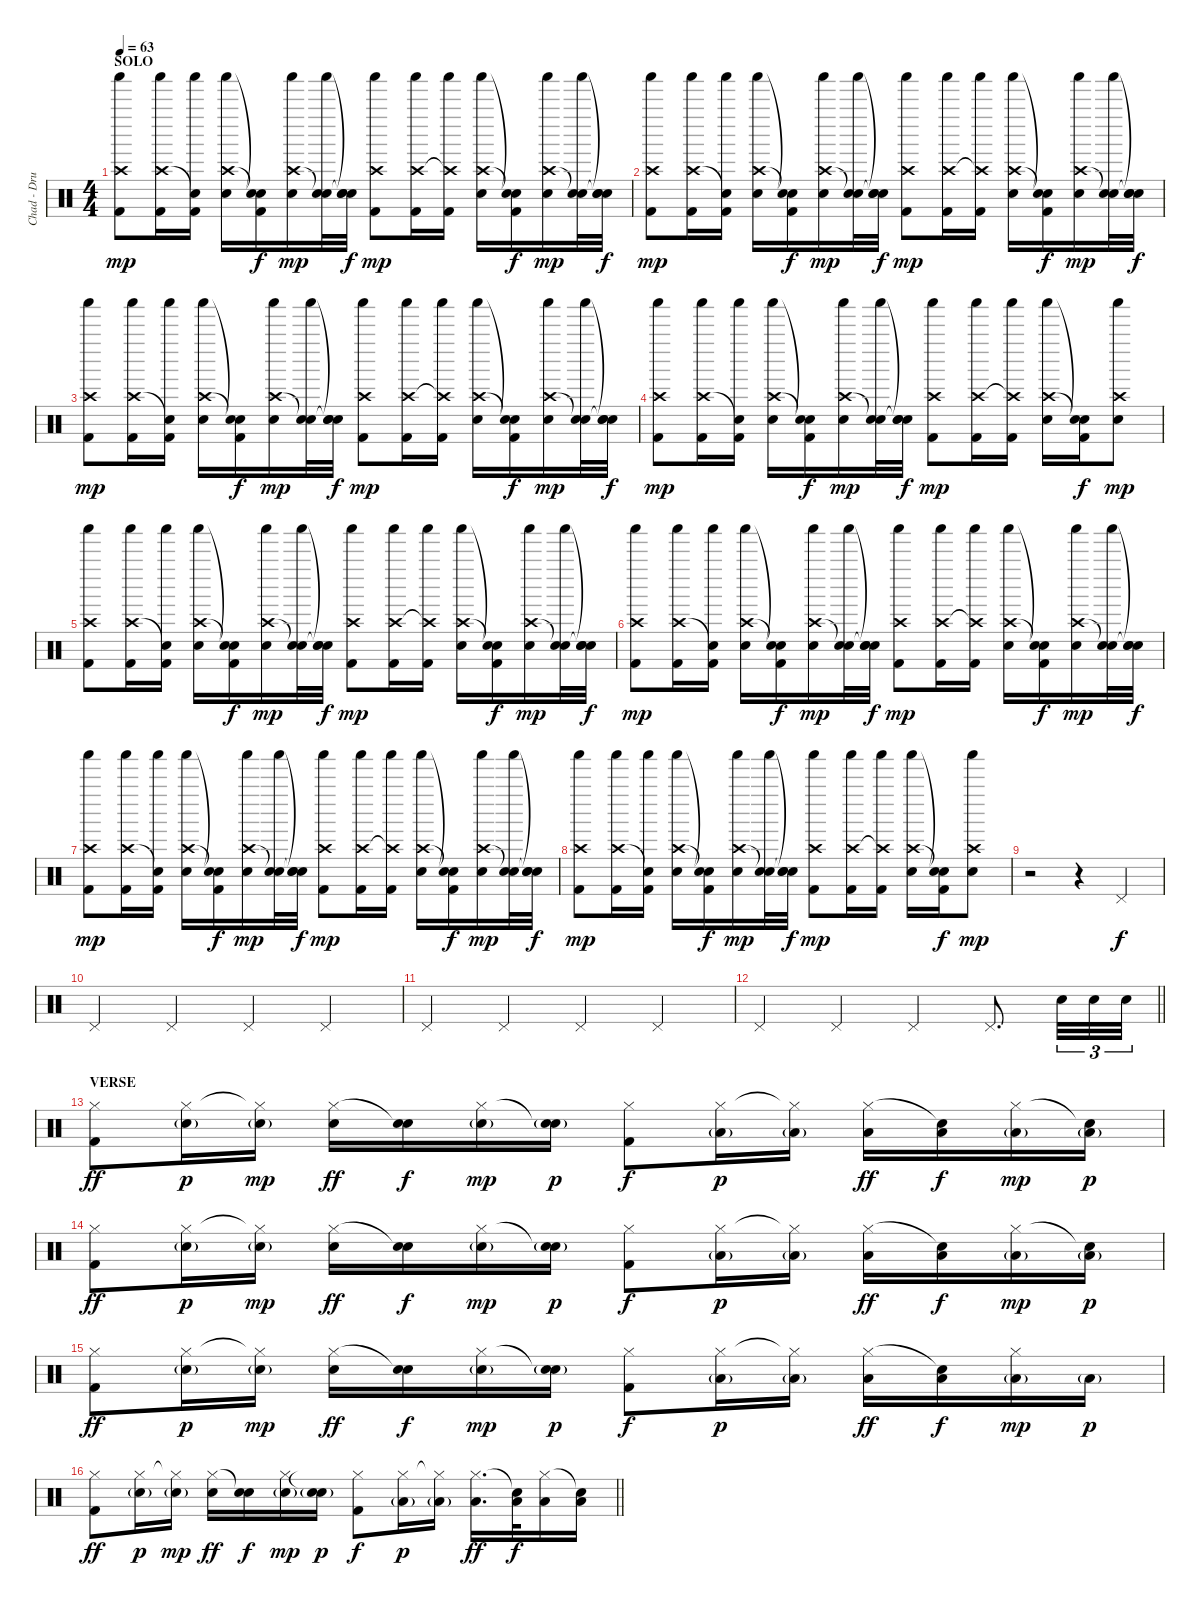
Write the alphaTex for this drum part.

\track ("Chad - Drums" "Chad - Dru") {instrument percussion}
\staff {score}
\articulation defaults
\ts (4 4)
\section ("" "SOLO")
\tempo 63
\clef neutral
\ks c
("Crash high (hit)" "Shaker (hit)" "Kick (hit) 2").8{dy mp} ("Crash high (hit)" "Shaker (hit)" "Kick (hit) 2").16 ("Snare (hit)"{t} "Shaker (hit)" "Kick (hit) 2").16 ("Crash high (hit)" "Shaker (hit)" "Snare (hit) 2").16 ("Snare (hit)"{t} "Snare (hit)"{t} "Kick (hit) 2").16{dy f} ("Crash high (hit)" "Shaker (hit)" "Snare (hit) 2").16{dy mp} ("Snare (hit)"{t} "Shaker (hit)" "Snare (hit) 2").32 ("Snare (hit)"{t} "Snare (hit)"{t} "Snare (hit) 2").32{dy f} ("Crash high (hit)" "Shaker (hit)" "Kick (hit) 2").8{dy mp} ("Crash high (hit)" "Shaker (hit)" "Kick (hit) 2").16 ("Crash high (hit)"{t} "Shaker (hit)" "Kick (hit) 2").16 ("Crash high (hit)" "Shaker (hit)" "Snare (hit) 2").16 ("Snare (hit)"{t} "Snare (hit)"{t} "Kick (hit) 2").16{dy f} ("Crash high (hit)" "Shaker (hit)" "Snare (hit) 2").16{dy mp} ("Snare (hit)"{t} "Shaker (hit)" "Snare (hit) 2").32 ("Snare (hit)"{t} "Snare (hit)"{t} "Snare (hit) 2").32{dy f} |
("Crash high (hit)" "Shaker (hit)" "Kick (hit) 2").8{dy mp} ("Crash high (hit)" "Shaker (hit)" "Kick (hit) 2").16 ("Snare (hit)"{t} "Shaker (hit)" "Kick (hit) 2").16 ("Crash high (hit)" "Shaker (hit)" "Snare (hit) 2").16 ("Snare (hit)"{t} "Snare (hit)"{t} "Kick (hit) 2").16{dy f} ("Crash high (hit)" "Shaker (hit)" "Snare (hit) 2").16{dy mp} ("Snare (hit)"{t} "Shaker (hit)" "Snare (hit) 2").32 ("Snare (hit)"{t} "Snare (hit)"{t} "Snare (hit) 2").32{dy f} ("Crash high (hit)" "Shaker (hit)" "Kick (hit) 2").8{dy mp} ("Crash high (hit)" "Shaker (hit)" "Kick (hit) 2").16 ("Crash high (hit)"{t} "Shaker (hit)" "Kick (hit) 2").16 ("Crash high (hit)" "Shaker (hit)" "Snare (hit) 2").16 ("Snare (hit)"{t} "Snare (hit)"{t} "Kick (hit) 2").16{dy f} ("Crash high (hit)" "Shaker (hit)" "Snare (hit) 2").16{dy mp} ("Snare (hit)"{t} "Shaker (hit)" "Snare (hit) 2").32 ("Snare (hit)"{t} "Snare (hit)"{t} "Snare (hit) 2").32{dy f} |
("Crash high (hit)" "Shaker (hit)" "Kick (hit) 2").8{dy mp} ("Crash high (hit)" "Shaker (hit)" "Kick (hit) 2").16 ("Snare (hit)"{t} "Shaker (hit)" "Kick (hit) 2").16 ("Crash high (hit)" "Shaker (hit)" "Snare (hit) 2").16 ("Snare (hit)"{t} "Snare (hit)"{t} "Kick (hit) 2").16{dy f} ("Crash high (hit)" "Shaker (hit)" "Snare (hit) 2").16{dy mp} ("Snare (hit)"{t} "Shaker (hit)" "Snare (hit) 2").32 ("Snare (hit)"{t} "Snare (hit)"{t} "Snare (hit) 2").32{dy f} ("Crash high (hit)" "Shaker (hit)" "Kick (hit) 2").8{dy mp} ("Crash high (hit)" "Shaker (hit)" "Kick (hit) 2").16 ("Crash high (hit)"{t} "Shaker (hit)" "Kick (hit) 2").16 ("Crash high (hit)" "Shaker (hit)" "Snare (hit) 2").16 ("Snare (hit)"{t} "Snare (hit)"{t} "Kick (hit) 2").16{dy f} ("Crash high (hit)" "Shaker (hit)" "Snare (hit) 2").16{dy mp} ("Snare (hit)"{t} "Shaker (hit)" "Snare (hit) 2").32 ("Snare (hit)"{t} "Snare (hit)"{t} "Snare (hit) 2").32{dy f} |
("Crash high (hit)" "Shaker (hit)" "Kick (hit) 2").8{dy mp} ("Crash high (hit)" "Shaker (hit)" "Kick (hit) 2").16 ("Snare (hit)"{t} "Shaker (hit)" "Kick (hit) 2").16 ("Crash high (hit)" "Shaker (hit)" "Snare (hit) 2").16 ("Snare (hit)"{t} "Snare (hit)"{t} "Kick (hit) 2").16{dy f} ("Crash high (hit)" "Shaker (hit)" "Snare (hit) 2").16{dy mp} ("Snare (hit)"{t} "Shaker (hit)" "Snare (hit) 2").32 ("Snare (hit)"{t} "Snare (hit)"{t} "Snare (hit) 2").32{dy f} ("Crash high (hit)" "Shaker (hit)" "Kick (hit) 2").8{dy mp} ("Crash high (hit)" "Shaker (hit)" "Kick (hit) 2").16 ("Crash high (hit)"{t} "Shaker (hit)" "Kick (hit) 2").16 ("Crash high (hit)" "Shaker (hit)" "Snare (hit) 2").16 ("Snare (hit)"{t} "Snare (hit)"{t} "Kick (hit) 2").16{dy f} ("Crash high (hit)" "Shaker (hit)" "Snare (hit) 2").8{dy mp} |
("Crash high (hit)" "Shaker (hit)" "Kick (hit) 2").8 ("Crash high (hit)" "Shaker (hit)" "Kick (hit) 2").16 ("Snare (hit)"{t} "Shaker (hit)" "Kick (hit) 2").16 ("Crash high (hit)" "Shaker (hit)" "Snare (hit) 2").16 ("Snare (hit)"{t} "Snare (hit)"{t} "Kick (hit) 2").16{dy f} ("Crash high (hit)" "Shaker (hit)" "Snare (hit) 2").16{dy mp} ("Snare (hit)"{t} "Shaker (hit)" "Snare (hit) 2").32 ("Snare (hit)"{t} "Snare (hit)"{t} "Snare (hit) 2").32{dy f} ("Crash high (hit)" "Shaker (hit)" "Kick (hit) 2").8{dy mp} ("Crash high (hit)" "Shaker (hit)" "Kick (hit) 2").16 ("Crash high (hit)"{t} "Shaker (hit)" "Kick (hit) 2").16 ("Crash high (hit)" "Shaker (hit)" "Snare (hit) 2").16 ("Snare (hit)"{t} "Snare (hit)"{t} "Kick (hit) 2").16{dy f} ("Crash high (hit)" "Shaker (hit)" "Snare (hit) 2").16{dy mp} ("Snare (hit)"{t} "Shaker (hit)" "Snare (hit) 2").32 ("Snare (hit)"{t} "Snare (hit)"{t} "Snare (hit) 2").32{dy f} |
("Crash high (hit)" "Shaker (hit)" "Kick (hit) 2").8{dy mp} ("Crash high (hit)" "Shaker (hit)" "Kick (hit) 2").16 ("Snare (hit)"{t} "Shaker (hit)" "Kick (hit) 2").16 ("Crash high (hit)" "Shaker (hit)" "Snare (hit) 2").16 ("Snare (hit)"{t} "Snare (hit)"{t} "Kick (hit) 2").16{dy f} ("Crash high (hit)" "Shaker (hit)" "Snare (hit) 2").16{dy mp} ("Snare (hit)"{t} "Shaker (hit)" "Snare (hit) 2").32 ("Snare (hit)"{t} "Snare (hit)"{t} "Snare (hit) 2").32{dy f} ("Crash high (hit)" "Shaker (hit)" "Kick (hit) 2").8{dy mp} ("Crash high (hit)" "Shaker (hit)" "Kick (hit) 2").16 ("Crash high (hit)"{t} "Shaker (hit)" "Kick (hit) 2").16 ("Crash high (hit)" "Shaker (hit)" "Snare (hit) 2").16 ("Snare (hit)"{t} "Snare (hit)"{t} "Kick (hit) 2").16{dy f} ("Crash high (hit)" "Shaker (hit)" "Snare (hit) 2").16{dy mp} ("Snare (hit)"{t} "Shaker (hit)" "Snare (hit) 2").32 ("Snare (hit)"{t} "Snare (hit)"{t} "Snare (hit) 2").32{dy f} |
("Crash high (hit)" "Shaker (hit)" "Kick (hit) 2").8{dy mp} ("Crash high (hit)" "Shaker (hit)" "Kick (hit) 2").16 ("Snare (hit)"{t} "Shaker (hit)" "Kick (hit) 2").16 ("Crash high (hit)" "Shaker (hit)" "Snare (hit) 2").16 ("Snare (hit)"{t} "Snare (hit)"{t} "Kick (hit) 2").16{dy f} ("Crash high (hit)" "Shaker (hit)" "Snare (hit) 2").16{dy mp} ("Snare (hit)"{t} "Shaker (hit)" "Snare (hit) 2").32 ("Snare (hit)"{t} "Snare (hit)"{t} "Snare (hit) 2").32{dy f} ("Crash high (hit)" "Shaker (hit)" "Kick (hit) 2").8{dy mp} ("Crash high (hit)" "Shaker (hit)" "Kick (hit) 2").16 ("Crash high (hit)"{t} "Shaker (hit)" "Kick (hit) 2").16 ("Crash high (hit)" "Shaker (hit)" "Snare (hit) 2").16 ("Snare (hit)"{t} "Snare (hit)"{t} "Kick (hit) 2").16{dy f} ("Crash high (hit)" "Shaker (hit)" "Snare (hit) 2").16{dy mp} ("Snare (hit)"{t} "Shaker (hit)" "Snare (hit) 2").32 ("Snare (hit)"{t} "Snare (hit)"{t} "Snare (hit) 2").32{dy f} |
("Crash high (hit)" "Shaker (hit)" "Kick (hit) 2").8{dy mp} ("Crash high (hit)" "Shaker (hit)" "Kick (hit) 2").16 ("Snare (hit)"{t} "Shaker (hit)" "Kick (hit) 2").16 ("Crash high (hit)" "Shaker (hit)" "Snare (hit) 2").16 ("Snare (hit)"{t} "Snare (hit)"{t} "Kick (hit) 2").16{dy f} ("Crash high (hit)" "Shaker (hit)" "Snare (hit) 2").16{dy mp} ("Snare (hit)"{t} "Shaker (hit)" "Snare (hit) 2").32 ("Snare (hit)"{t} "Snare (hit)"{t} "Snare (hit) 2").32{dy f} ("Crash high (hit)" "Shaker (hit)" "Kick (hit) 2").8{dy mp} ("Crash high (hit)" "Shaker (hit)" "Kick (hit) 2").16 ("Crash high (hit)"{t} "Shaker (hit)" "Kick (hit) 2").16 ("Crash high (hit)" "Shaker (hit)" "Snare (hit) 2").16 ("Snare (hit)"{t} "Snare (hit)"{t} "Kick (hit) 2").16{dy f} ("Crash high (hit)" "Shaker (hit)" "Snare (hit) 2").8{dy mp} |
r.2 r.4 "Pedal Hi-Hat (hit)".4{dy f} |
"Pedal Hi-Hat (hit)".4 "Pedal Hi-Hat (hit)".4 "Pedal Hi-Hat (hit)".4 "Pedal Hi-Hat (hit)".4 |
"Pedal Hi-Hat (hit)".4 "Pedal Hi-Hat (hit)".4 "Pedal Hi-Hat (hit)".4 "Pedal Hi-Hat (hit)".4 |
\barLineRight lightlight "Pedal Hi-Hat (hit)".4 "Pedal Hi-Hat (hit)".4 "Pedal Hi-Hat (hit)".4 "Pedal Hi-Hat (hit)".8{d} "Snare (hit) 2".32{tu (3 2)} "Snare (hit) 2".32{tu (3 2)} "Snare (hit) 2".32{tu (3 2)}
|
\section ("" "VERSE")
("Hi-Hat (closed)" "Kick (hit) 2").8{dy ff volume 12} ("Hi-Hat (closed)" "Snare (hit) 2"{g}).16{dy p} ("Hi-Hat (closed)"{t} "Snare (hit) 2"{g}).16{dy mp} ("Hi-Hat (closed)" "Snare (hit) 2").16{dy ff} ("Snare (hit)"{t} "Snare (hit) 2").16{dy f} ("Hi-Hat (closed)" "Snare (hit) 2"{g}).16{dy mp} ("Snare (hit)"{t} "Snare (hit) 2"{g}).16{dy p} ("Hi-Hat (closed)" "Kick (hit) 2").8{dy f} ("Hi-Hat (closed)" "Low Floor Tom (hit)"{g}).16{dy p} ("Hi-Hat (closed)"{t} "Low Floor Tom (hit)"{g}).16 ("Hi-Hat (closed)" "Low Floor Tom (hit)").16{dy ff} ("Snare (hit)"{t} "Low Floor Tom (hit)").16{dy f} ("Hi-Hat (closed)" "Low Floor Tom (hit)"{g}).16{dy mp} ("Snare (hit)"{t} "Low Floor Tom (hit)"{g}).16{dy p} |
("Hi-Hat (closed)" "Kick (hit) 2").8{dy ff} ("Hi-Hat (closed)" "Snare (hit) 2"{g}).16{dy p} ("Hi-Hat (closed)"{t} "Snare (hit) 2"{g}).16{dy mp} ("Hi-Hat (closed)" "Snare (hit) 2").16{dy ff} ("Snare (hit)"{t} "Snare (hit) 2").16{dy f} ("Hi-Hat (closed)" "Snare (hit) 2"{g}).16{dy mp} ("Snare (hit)"{t} "Snare (hit) 2"{g}).16{dy p} ("Hi-Hat (closed)" "Kick (hit) 2").8{dy f} ("Hi-Hat (closed)" "Low Floor Tom (hit)"{g}).16{dy p} ("Hi-Hat (closed)"{t} "Low Floor Tom (hit)"{g}).16 ("Hi-Hat (closed)" "Low Floor Tom (hit)").16{dy ff} ("Snare (hit)"{t} "Low Floor Tom (hit)").16{dy f} ("Hi-Hat (closed)" "Low Floor Tom (hit)"{g}).16{dy mp} ("Snare (hit)"{t} "Low Floor Tom (hit)"{g}).16{dy p} |
("Hi-Hat (closed)" "Kick (hit) 2").8{dy ff} ("Hi-Hat (closed)" "Snare (hit) 2"{g}).16{dy p} ("Hi-Hat (closed)"{t} "Snare (hit) 2"{g}).16{dy mp} ("Hi-Hat (closed)" "Snare (hit) 2").16{dy ff} ("Snare (hit)"{t} "Snare (hit) 2").16{dy f} ("Hi-Hat (closed)" "Snare (hit) 2"{g}).16{dy mp} ("Snare (hit)"{t} "Snare (hit) 2"{g}).16{dy p} ("Hi-Hat (closed)" "Kick (hit) 2").8{dy f} ("Hi-Hat (closed)" "Low Floor Tom (hit)"{g}).16{dy p} ("Hi-Hat (closed)"{t} "Low Floor Tom (hit)"{g}).16 ("Hi-Hat (closed)" "Low Floor Tom (hit)").16{dy ff} ("Snare (hit)"{t} "Low Floor Tom (hit)").16{dy f} ("Hi-Hat (closed)" "Low Floor Tom (hit)"{g}).16{dy mp} "Low Floor Tom (hit)"{g}.16{dy p} |
\barLineRight lightlight
("Hi-Hat (closed)" "Kick (hit) 2").8{dy ff} ("Hi-Hat (closed)" "Snare (hit) 2"{g}).16{dy p} ("Hi-Hat (closed)"{t} "Snare (hit) 2"{g}).16{dy mp} ("Hi-Hat (closed)" "Snare (hit) 2").16{dy ff} ("Snare (hit)"{t} "Snare (hit) 2").16{dy f} ("Hi-Hat (closed)" "Snare (hit) 2"{g}).16{dy mp} ("Snare (hit)"{t} "Snare (hit) 2"{g}).16{dy p} ("Hi-Hat (closed)" "Kick (hit) 2").8{dy f} ("Hi-Hat (closed)" "Low Floor Tom (hit)"{g}).16{dy p} ("Hi-Hat (closed)"{t} "Low Floor Tom (hit)"{g}).16 ("Hi-Hat (closed)" "Low Floor Tom (hit)").16{d dy ff} ("Snare (hit)"{t} "Low Floor Tom (hit)").32{dy f} ("Hi-Hat (closed)" "Low Floor Tom (hit)").16 ("Snare (hit)"{t} "Low Floor Tom (hit)").16
